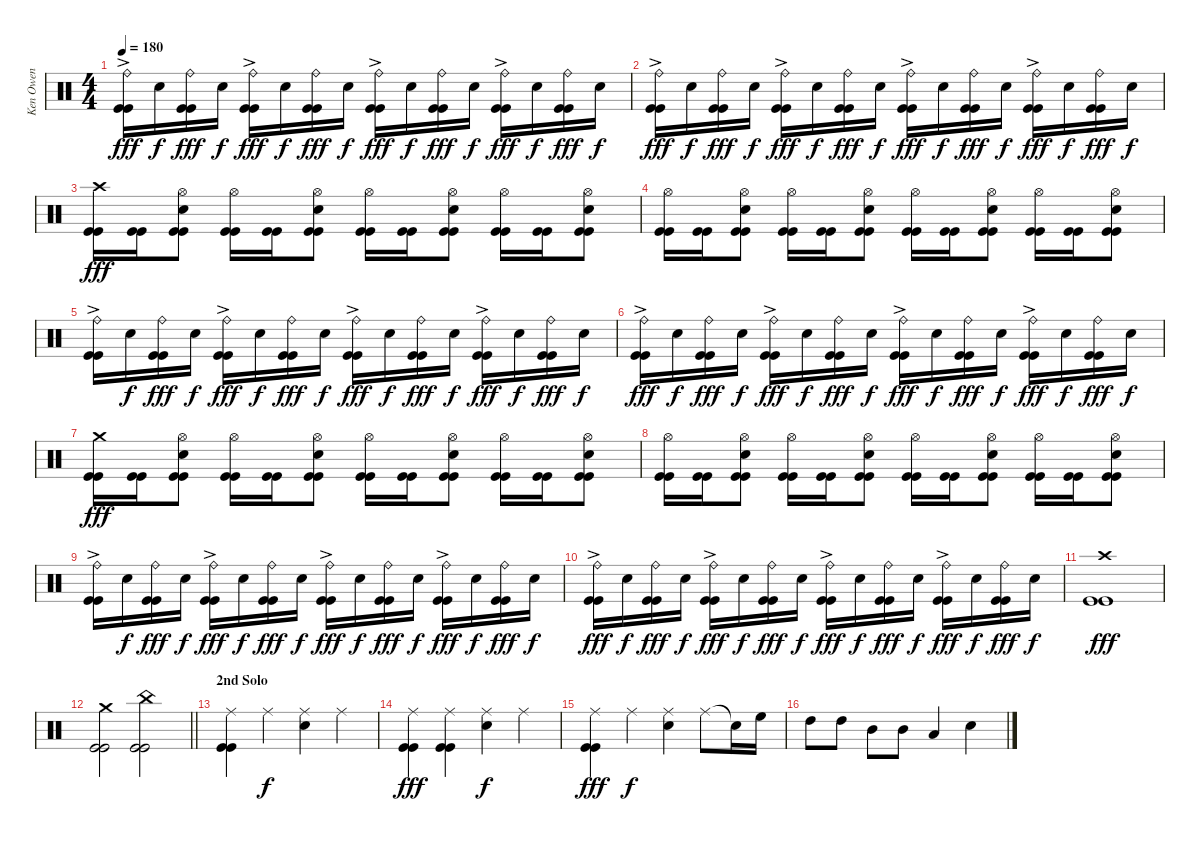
\track ("Ken Owen" "Ken Owen") {instrument percussion}
\staff {score}
\articulation defaults
\ts (4 4)
\tempo 180
\clef neutral
\ks c
("Ride (bell)"{ac} "Kick (hit)" "Kick (hit)").16{dy fff} "Snare (hit) 2".16{dy f} ("Ride (bell)" "Kick (hit)" "Kick (hit)").16{dy fff} "Snare (hit) 2".16{dy f} ("Ride (bell)"{ac} "Kick (hit)" "Kick (hit)").16{dy fff} "Snare (hit) 2".16{dy f} ("Ride (bell)" "Kick (hit)" "Kick (hit)").16{dy fff} "Snare (hit) 2".16{dy f} ("Ride (bell)"{ac} "Kick (hit)" "Kick (hit)").16{dy fff} "Snare (hit) 2".16{dy f} ("Ride (bell)" "Kick (hit)" "Kick (hit)").16{dy fff} "Snare (hit) 2".16{dy f} ("Ride (bell)"{ac} "Kick (hit)" "Kick (hit)").16{dy fff} "Snare (hit) 2".16{dy f} ("Ride (bell)" "Kick (hit)" "Kick (hit)").16{dy fff} "Snare (hit) 2".16{dy f} |
("Ride (bell)"{ac} "Kick (hit)" "Kick (hit)").16{dy fff} "Snare (hit) 2".16{dy f} ("Ride (bell)" "Kick (hit)" "Kick (hit)").16{dy fff} "Snare (hit) 2".16{dy f} ("Ride (bell)"{ac} "Kick (hit)" "Kick (hit)").16{dy fff} "Snare (hit) 2".16{dy f} ("Ride (bell)" "Kick (hit)" "Kick (hit)").16{dy fff} "Snare (hit) 2".16{dy f} ("Ride (bell)"{ac} "Kick (hit)" "Kick (hit)").16{dy fff} "Snare (hit) 2".16{dy f} ("Ride (bell)" "Kick (hit)" "Kick (hit)").16{dy fff} "Snare (hit) 2".16{dy f} ("Ride (bell)"{ac} "Kick (hit)" "Kick (hit)").16{dy fff} "Snare (hit) 2".16{dy f} ("Ride (bell)" "Kick (hit)" "Kick (hit)").16{dy fff} "Snare (hit) 2".16{dy f} |
("Crash high (hit)" "Kick (hit)" "Kick (hit)").16{dy fff} ("Kick (hit)" "Kick (hit)").16 ("Hi-Hat (open)" "Snare (hit) 2" "Kick (hit)" "Kick (hit)").8 ("Hi-Hat (open)" "Kick (hit)" "Kick (hit)").16 ("Kick (hit)" "Kick (hit)").16 ("Hi-Hat (open)" "Snare (hit) 2" "Kick (hit)" "Kick (hit)").8 ("Hi-Hat (open)" "Kick (hit)" "Kick (hit)").16 ("Kick (hit)" "Kick (hit)").16 ("Hi-Hat (open)" "Snare (hit) 2" "Kick (hit)" "Kick (hit)").8 ("Hi-Hat (open)" "Kick (hit)" "Kick (hit)").16 ("Kick (hit)" "Kick (hit)").16 ("Hi-Hat (open)" "Snare (hit) 2" "Kick (hit)" "Kick (hit)").8 |
("Hi-Hat (open)" "Kick (hit)" "Kick (hit)").16 ("Kick (hit)" "Kick (hit)").16 ("Hi-Hat (open)" "Snare (hit) 2" "Kick (hit)" "Kick (hit)").8 ("Hi-Hat (open)" "Kick (hit)" "Kick (hit)").16 ("Kick (hit)" "Kick (hit)").16 ("Hi-Hat (open)" "Snare (hit) 2" "Kick (hit)" "Kick (hit)").8 ("Hi-Hat (open)" "Kick (hit)" "Kick (hit)").16 ("Kick (hit)" "Kick (hit)").16 ("Hi-Hat (open)" "Snare (hit) 2" "Kick (hit)" "Kick (hit)").8 ("Hi-Hat (open)" "Kick (hit)" "Kick (hit)").16 ("Kick (hit)" "Kick (hit)").16 ("Hi-Hat (open)" "Snare (hit) 2" "Kick (hit)" "Kick (hit)").8 |
("Ride (bell)"{ac} "Kick (hit)" "Kick (hit)").16 "Snare (hit) 2".16{dy f} ("Ride (bell)" "Kick (hit)" "Kick (hit)").16{dy fff} "Snare (hit) 2".16{dy f} ("Ride (bell)"{ac} "Kick (hit)" "Kick (hit)").16{dy fff} "Snare (hit) 2".16{dy f} ("Ride (bell)" "Kick (hit)" "Kick (hit)").16{dy fff} "Snare (hit) 2".16{dy f} ("Ride (bell)"{ac} "Kick (hit)" "Kick (hit)").16{dy fff} "Snare (hit) 2".16{dy f} ("Ride (bell)" "Kick (hit)" "Kick (hit)").16{dy fff} "Snare (hit) 2".16{dy f} ("Ride (bell)"{ac} "Kick (hit)" "Kick (hit)").16{dy fff} "Snare (hit) 2".16{dy f} ("Ride (bell)" "Kick (hit)" "Kick (hit)").16{dy fff} "Snare (hit) 2".16{dy f} |
("Ride (bell)"{ac} "Kick (hit)" "Kick (hit)").16{dy fff} "Snare (hit) 2".16{dy f} ("Ride (bell)" "Kick (hit)" "Kick (hit)").16{dy fff} "Snare (hit) 2".16{dy f} ("Ride (bell)"{ac} "Kick (hit)" "Kick (hit)").16{dy fff} "Snare (hit) 2".16{dy f} ("Ride (bell)" "Kick (hit)" "Kick (hit)").16{dy fff} "Snare (hit) 2".16{dy f} ("Ride (bell)"{ac} "Kick (hit)" "Kick (hit)").16{dy fff} "Snare (hit) 2".16{dy f} ("Ride (bell)" "Kick (hit)" "Kick (hit)").16{dy fff} "Snare (hit) 2".16{dy f} ("Ride (bell)"{ac} "Kick (hit)" "Kick (hit)").16{dy fff} "Snare (hit) 2".16{dy f} ("Ride (bell)" "Kick (hit)" "Kick (hit)").16{dy fff} "Snare (hit) 2".16{dy f} |
("Crash medium (hit)" "Kick (hit)" "Kick (hit)").16{dy fff} ("Kick (hit)" "Kick (hit)").16 ("Hi-Hat (open)" "Snare (hit) 2" "Kick (hit)" "Kick (hit)").8 ("Hi-Hat (open)" "Kick (hit)" "Kick (hit)").16 ("Kick (hit)" "Kick (hit)").16 ("Hi-Hat (open)" "Snare (hit) 2" "Kick (hit)" "Kick (hit)").8 ("Hi-Hat (open)" "Kick (hit)" "Kick (hit)").16 ("Kick (hit)" "Kick (hit)").16 ("Hi-Hat (open)" "Snare (hit) 2" "Kick (hit)" "Kick (hit)").8 ("Hi-Hat (open)" "Kick (hit)" "Kick (hit)").16 ("Kick (hit)" "Kick (hit)").16 ("Hi-Hat (open)" "Snare (hit) 2" "Kick (hit)" "Kick (hit)").8 |
("Hi-Hat (open)" "Kick (hit)" "Kick (hit)").16 ("Kick (hit)" "Kick (hit)").16 ("Hi-Hat (open)" "Snare (hit) 2" "Kick (hit)" "Kick (hit)").8 ("Hi-Hat (open)" "Kick (hit)" "Kick (hit)").16 ("Kick (hit)" "Kick (hit)").16 ("Hi-Hat (open)" "Snare (hit) 2" "Kick (hit)" "Kick (hit)").8 ("Hi-Hat (open)" "Kick (hit)" "Kick (hit)").16 ("Kick (hit)" "Kick (hit)").16 ("Hi-Hat (open)" "Snare (hit) 2" "Kick (hit)" "Kick (hit)").8 ("Hi-Hat (open)" "Kick (hit)" "Kick (hit)").16 ("Kick (hit)" "Kick (hit)").16 ("Hi-Hat (open)" "Snare (hit) 2" "Kick (hit)" "Kick (hit)").8 |
("Ride (bell)"{ac} "Kick (hit)" "Kick (hit)").16 "Snare (hit) 2".16{dy f} ("Ride (bell)" "Kick (hit)" "Kick (hit)").16{dy fff} "Snare (hit) 2".16{dy f} ("Ride (bell)"{ac} "Kick (hit)" "Kick (hit)").16{dy fff} "Snare (hit) 2".16{dy f} ("Ride (bell)" "Kick (hit)" "Kick (hit)").16{dy fff} "Snare (hit) 2".16{dy f} ("Ride (bell)"{ac} "Kick (hit)" "Kick (hit)").16{dy fff} "Snare (hit) 2".16{dy f} ("Ride (bell)" "Kick (hit)" "Kick (hit)").16{dy fff} "Snare (hit) 2".16{dy f} ("Ride (bell)"{ac} "Kick (hit)" "Kick (hit)").16{dy fff} "Snare (hit) 2".16{dy f} ("Ride (bell)" "Kick (hit)" "Kick (hit)").16{dy fff} "Snare (hit) 2".16{dy f} |
("Ride (bell)"{ac} "Kick (hit)" "Kick (hit)").16{dy fff} "Snare (hit) 2".16{dy f} ("Ride (bell)" "Kick (hit)" "Kick (hit)").16{dy fff} "Snare (hit) 2".16{dy f} ("Ride (bell)"{ac} "Kick (hit)" "Kick (hit)").16{dy fff} "Snare (hit) 2".16{dy f} ("Ride (bell)" "Kick (hit)" "Kick (hit)").16{dy fff} "Snare (hit) 2".16{dy f} ("Ride (bell)"{ac} "Kick (hit)" "Kick (hit)").16{dy fff} "Snare (hit) 2".16{dy f} ("Ride (bell)" "Kick (hit)" "Kick (hit)").16{dy fff} "Snare (hit) 2".16{dy f} ("Ride (bell)"{ac} "Kick (hit)" "Kick (hit)").16{dy fff} "Snare (hit) 2".16{dy f} ("Ride (bell)" "Kick (hit)" "Kick (hit)").16{dy fff} "Snare (hit) 2".16{dy f} |
("Crash high (hit)" "Kick (hit)" "Kick (hit)").1{dy fff} |
\barLineRight lightlight
("Crash medium (hit)" "Kick (hit)" "Kick (hit)").2 ("China (hit)" "Kick (hit)" "Kick (hit)").2 |
\section ("" "2nd Solo")
("Ride (middle)" "Kick (hit)" "Kick (hit)").4 "Ride (middle)".4{dy f} ("Ride (middle)" "Snare (hit) 2").4 "Ride (middle)".4 |
("Ride (middle)" "Kick (hit)" "Kick (hit)").4{dy fff} ("Ride (middle)" "Kick (hit)" "Kick (hit)").4 ("Ride (middle)" "Snare (hit) 2").4{dy f} "Ride (middle)".4 |
("Ride (middle)" "Kick (hit)" "Kick (hit)").4{dy fff} "Ride (middle)".4{dy f} ("Ride (middle)" "Snare (hit) 2").4 "Ride (middle)".8 "Snare (hit)"{t}.16 "High Floor Tom (hit)".16 |
"High Tom (hit)".8 "High Tom (hit)".8 "Mid Tom (hit)".8 "Mid Tom (hit)".8 "Low Tom (hit)".4 "Snare (hit) 2".4
